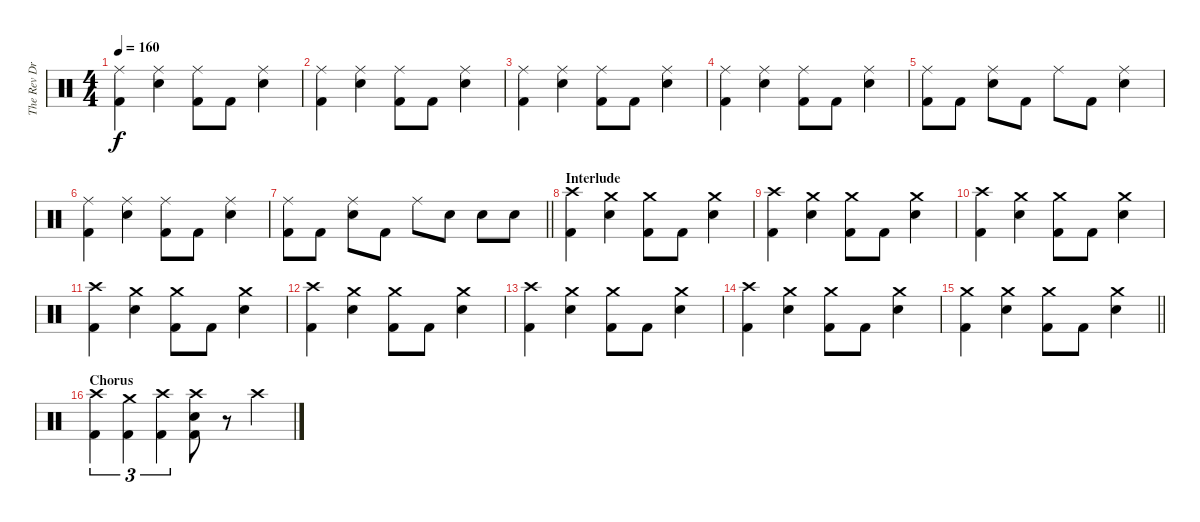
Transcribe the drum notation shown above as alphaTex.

\track ("The Rev Drum" "The Rev Dr") {instrument percussion}
\staff {score}
\articulation defaults
\ts (4 4)
\tempo 160
\clef neutral
\ks c
("Ride (middle)" "Kick (hit) 2").4{dy f} ("Ride (middle)" "Electric Snare (hit)").4 ("Ride (middle)" "Kick (hit) 2").8 "Kick (hit) 2".8 ("Ride (middle)" "Electric Snare (hit)").4 |
("Ride (middle)" "Kick (hit) 2").4 ("Ride (middle)" "Electric Snare (hit)").4 ("Ride (middle)" "Kick (hit) 2").8 "Kick (hit) 2".8 ("Ride (middle)" "Electric Snare (hit)").4 |
("Ride (middle)" "Kick (hit) 2").4 ("Ride (middle)" "Electric Snare (hit)").4 ("Ride (middle)" "Kick (hit) 2").8 "Kick (hit) 2".8 ("Ride (middle)" "Electric Snare (hit)").4 |
("Ride (middle)" "Kick (hit) 2").4 ("Ride (middle)" "Electric Snare (hit)").4 ("Ride (middle)" "Kick (hit) 2").8 "Kick (hit) 2".8 ("Ride (middle)" "Electric Snare (hit)").4 |
("Ride (middle)" "Kick (hit) 2").8 "Kick (hit) 2".8 ("Ride (middle)" "Electric Snare (hit)").8 "Kick (hit) 2".8 "Ride (middle)".8 "Kick (hit) 2".8 ("Ride (middle)" "Electric Snare (hit)").4 |
("Ride (middle)" "Kick (hit) 2").4 ("Ride (middle)" "Electric Snare (hit)").4 ("Ride (middle)" "Kick (hit) 2").8 "Kick (hit) 2".8 ("Ride (middle)" "Electric Snare (hit)").4 |
\barLineRight lightlight
("Ride (middle)" "Kick (hit) 2").8 "Kick (hit) 2".8 ("Ride (middle)" "Electric Snare (hit)").8 "Kick (hit) 2".8 "Ride (middle)".8 "Electric Snare (hit)".8 "Electric Snare (hit)".8 "Electric Snare (hit)".8 |
\section ("" "Interlude")
("Crash high (hit)" "Kick (hit) 2").4 ("Crash medium (hit)" "Electric Snare (hit)").4 ("Crash medium (hit)" "Kick (hit) 2").8 "Kick (hit) 2".8 ("Crash medium (hit)" "Electric Snare (hit)").4 |
("Crash high (hit)" "Kick (hit) 2").4 ("Crash medium (hit)" "Electric Snare (hit)").4 ("Crash medium (hit)" "Kick (hit) 2").8 "Kick (hit) 2".8 ("Crash medium (hit)" "Electric Snare (hit)").4 |
("Crash high (hit)" "Kick (hit) 2").4 ("Crash medium (hit)" "Electric Snare (hit)").4 ("Crash medium (hit)" "Kick (hit) 2").8 "Kick (hit) 2".8 ("Crash medium (hit)" "Electric Snare (hit)").4 |
("Crash high (hit)" "Kick (hit) 2").4 ("Crash medium (hit)" "Electric Snare (hit)").4 ("Crash medium (hit)" "Kick (hit) 2").8 "Kick (hit) 2".8 ("Crash medium (hit)" "Electric Snare (hit)").4 |
("Crash high (hit)" "Kick (hit) 2").4 ("Crash medium (hit)" "Electric Snare (hit)").4 ("Crash medium (hit)" "Kick (hit) 2").8 "Kick (hit) 2".8 ("Crash medium (hit)" "Electric Snare (hit)").4 |
("Crash high (hit)" "Kick (hit) 2").4 ("Crash medium (hit)" "Electric Snare (hit)").4 ("Crash medium (hit)" "Kick (hit) 2").8 "Kick (hit) 2".8 ("Crash medium (hit)" "Electric Snare (hit)").4 |
("Crash high (hit)" "Kick (hit) 2").4 ("Crash medium (hit)" "Electric Snare (hit)").4 ("Crash medium (hit)" "Kick (hit) 2").8 "Kick (hit) 2".8 ("Crash medium (hit)" "Electric Snare (hit)").4 |
\barLineRight lightlight
("Crash medium (hit)" "Kick (hit) 2").4 ("Crash medium (hit)" "Electric Snare (hit)").4 ("Crash medium (hit)" "Kick (hit) 2").8 "Kick (hit) 2".8 ("Crash medium (hit)" "Electric Snare (hit)").4 |
\section ("" "Chorus")
("Crash high (hit)" "Kick (hit) 2").4{tu (3 2)} ("Crash medium (hit)" "Kick (hit) 2").4{tu (3 2)} ("Crash high (hit)" "Kick (hit) 2").4{tu (3 2)} ("Crash high (hit)" "Electric Snare (hit)" "Kick (hit) 2").8 r.8 "Crash high (hit)".4
